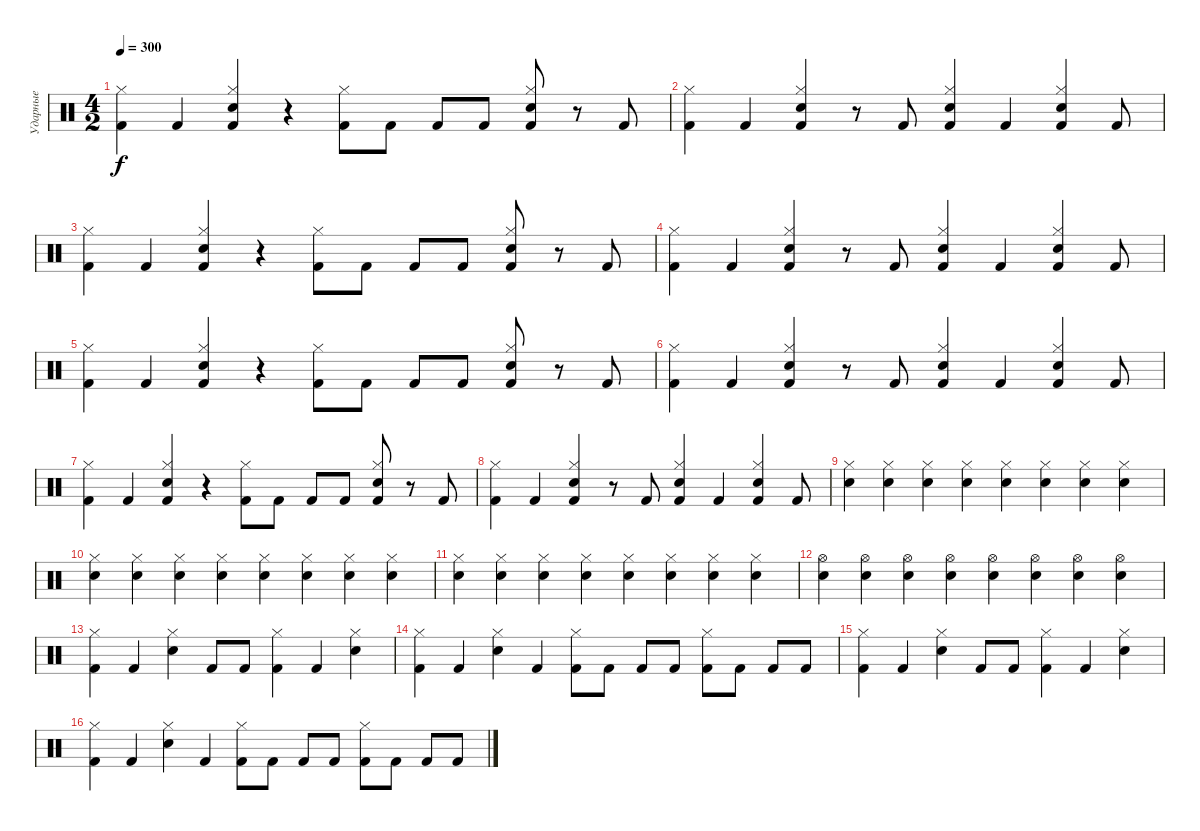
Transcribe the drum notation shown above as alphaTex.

\track ("Ударные" "Ударные") {instrument percussion}
\staff {score}
\articulation defaults
\ts (4 2)
\tempo 300
\clef neutral
\ks c
("Kick (hit) 2" "Hi-Hat (closed)").4{dy f} "Kick (hit) 2".4 ("Kick (hit) 2" "Hi-Hat (closed)" "Snare (hit) 2").4 r.4 ("Kick (hit) 2" "Hi-Hat (closed)").8 "Kick (hit) 2".8 "Kick (hit) 2".8 "Kick (hit) 2".8 ("Kick (hit) 2" "Hi-Hat (closed)" "Snare (hit) 2").8 r.8 "Kick (hit) 2".8 |
("Kick (hit) 2" "Hi-Hat (closed)").4 "Kick (hit) 2".4 ("Kick (hit) 2" "Hi-Hat (closed)" "Snare (hit) 2").4 r.8 "Kick (hit) 2".8 ("Kick (hit) 2" "Hi-Hat (closed)" "Snare (hit) 2").4 "Kick (hit) 2".4 ("Kick (hit) 2" "Hi-Hat (closed)" "Snare (hit) 2").4 "Kick (hit) 2".8 |
("Kick (hit) 2" "Hi-Hat (closed)").4 "Kick (hit) 2".4 ("Kick (hit) 2" "Hi-Hat (closed)" "Snare (hit) 2").4 r.4 ("Kick (hit) 2" "Hi-Hat (closed)").8 "Kick (hit) 2".8 "Kick (hit) 2".8 "Kick (hit) 2".8 ("Kick (hit) 2" "Hi-Hat (closed)" "Snare (hit) 2").8 r.8 "Kick (hit) 2".8 |
("Kick (hit) 2" "Hi-Hat (closed)").4 "Kick (hit) 2".4 ("Kick (hit) 2" "Hi-Hat (closed)" "Snare (hit) 2").4 r.8 "Kick (hit) 2".8 ("Kick (hit) 2" "Hi-Hat (closed)" "Snare (hit) 2").4 "Kick (hit) 2".4 ("Kick (hit) 2" "Hi-Hat (closed)" "Snare (hit) 2").4 "Kick (hit) 2".8 |
("Kick (hit) 2" "Hi-Hat (closed)").4 "Kick (hit) 2".4 ("Kick (hit) 2" "Hi-Hat (closed)" "Snare (hit) 2").4 r.4 ("Kick (hit) 2" "Hi-Hat (closed)").8 "Kick (hit) 2".8 "Kick (hit) 2".8 "Kick (hit) 2".8 ("Kick (hit) 2" "Hi-Hat (closed)" "Snare (hit) 2").8 r.8 "Kick (hit) 2".8 |
("Kick (hit) 2" "Hi-Hat (closed)").4 "Kick (hit) 2".4 ("Kick (hit) 2" "Hi-Hat (closed)" "Snare (hit) 2").4 r.8 "Kick (hit) 2".8 ("Kick (hit) 2" "Hi-Hat (closed)" "Snare (hit) 2").4 "Kick (hit) 2".4 ("Kick (hit) 2" "Hi-Hat (closed)" "Snare (hit) 2").4 "Kick (hit) 2".8 |
("Kick (hit) 2" "Hi-Hat (closed)").4 "Kick (hit) 2".4 ("Kick (hit) 2" "Hi-Hat (closed)" "Snare (hit) 2").4 r.4 ("Kick (hit) 2" "Hi-Hat (closed)").8 "Kick (hit) 2".8 "Kick (hit) 2".8 "Kick (hit) 2".8 ("Kick (hit) 2" "Hi-Hat (closed)" "Snare (hit) 2").8 r.8 "Kick (hit) 2".8 |
("Kick (hit) 2" "Hi-Hat (closed)").4 "Kick (hit) 2".4 ("Kick (hit) 2" "Hi-Hat (closed)" "Snare (hit) 2").4 r.8 "Kick (hit) 2".8 ("Kick (hit) 2" "Hi-Hat (closed)" "Snare (hit) 2").4 "Kick (hit) 2".4 ("Kick (hit) 2" "Hi-Hat (closed)" "Snare (hit) 2").4 "Kick (hit) 2".8 |
("Hi-Hat (closed)" "Snare (hit) 2").4 ("Hi-Hat (closed)" "Snare (hit) 2").4 ("Hi-Hat (closed)" "Snare (hit) 2").4 ("Hi-Hat (closed)" "Snare (hit) 2").4 ("Hi-Hat (closed)" "Snare (hit) 2").4 ("Hi-Hat (closed)" "Snare (hit) 2").4 ("Hi-Hat (closed)" "Snare (hit) 2").4 ("Hi-Hat (closed)" "Snare (hit) 2").4 |
("Hi-Hat (closed)" "Snare (hit) 2").4 ("Hi-Hat (closed)" "Snare (hit) 2").4 ("Hi-Hat (closed)" "Snare (hit) 2").4 ("Hi-Hat (closed)" "Snare (hit) 2").4 ("Hi-Hat (closed)" "Snare (hit) 2").4 ("Hi-Hat (closed)" "Snare (hit) 2").4 ("Hi-Hat (closed)" "Snare (hit) 2").4 ("Hi-Hat (closed)" "Snare (hit) 2").4 |
("Hi-Hat (closed)" "Snare (hit) 2").4 ("Hi-Hat (closed)" "Snare (hit) 2").4 ("Hi-Hat (closed)" "Snare (hit) 2").4 ("Hi-Hat (closed)" "Snare (hit) 2").4 ("Hi-Hat (closed)" "Snare (hit) 2").4 ("Hi-Hat (closed)" "Snare (hit) 2").4 ("Hi-Hat (closed)" "Snare (hit) 2").4 ("Hi-Hat (closed)" "Snare (hit) 2").4 |
("Hi-Hat (open)" "Snare (hit) 2").4 ("Hi-Hat (open)" "Snare (hit) 2").4 ("Hi-Hat (open)" "Snare (hit) 2").4 ("Hi-Hat (open)" "Snare (hit) 2").4 ("Hi-Hat (open)" "Snare (hit) 2").4 ("Hi-Hat (open)" "Snare (hit) 2").4 ("Hi-Hat (open)" "Snare (hit) 2").4 ("Hi-Hat (open)" "Snare (hit) 2").4 |
("Kick (hit) 2" "Hi-Hat (closed)").4 "Kick (hit) 2".4 ("Hi-Hat (closed)" "Snare (hit) 2").4 "Kick (hit) 2".8 "Kick (hit) 2".8 ("Kick (hit) 2" "Hi-Hat (closed)").4 "Kick (hit) 2".4 ("Hi-Hat (closed)" "Snare (hit) 2").4 |
("Kick (hit) 2" "Hi-Hat (closed)").4 "Kick (hit) 2".4 ("Hi-Hat (closed)" "Snare (hit) 2").4 "Kick (hit) 2".4 ("Kick (hit) 2" "Hi-Hat (closed)").8 "Kick (hit) 2".8 "Kick (hit) 2".8 "Kick (hit) 2".8 ("Kick (hit) 2" "Hi-Hat (closed)").8 "Kick (hit) 2".8 "Kick (hit) 2".8 "Kick (hit) 2".8 |
("Kick (hit) 2" "Hi-Hat (closed)").4 "Kick (hit) 2".4 ("Hi-Hat (closed)" "Snare (hit) 2").4 "Kick (hit) 2".8 "Kick (hit) 2".8 ("Kick (hit) 2" "Hi-Hat (closed)").4 "Kick (hit) 2".4 ("Hi-Hat (closed)" "Snare (hit) 2").4 |
("Kick (hit) 2" "Hi-Hat (closed)").4 "Kick (hit) 2".4 ("Hi-Hat (closed)" "Snare (hit) 2").4 "Kick (hit) 2".4 ("Kick (hit) 2" "Hi-Hat (closed)").8 "Kick (hit) 2".8 "Kick (hit) 2".8 "Kick (hit) 2".8 ("Kick (hit) 2" "Hi-Hat (closed)").8 "Kick (hit) 2".8 "Kick (hit) 2".8 "Kick (hit) 2".8
